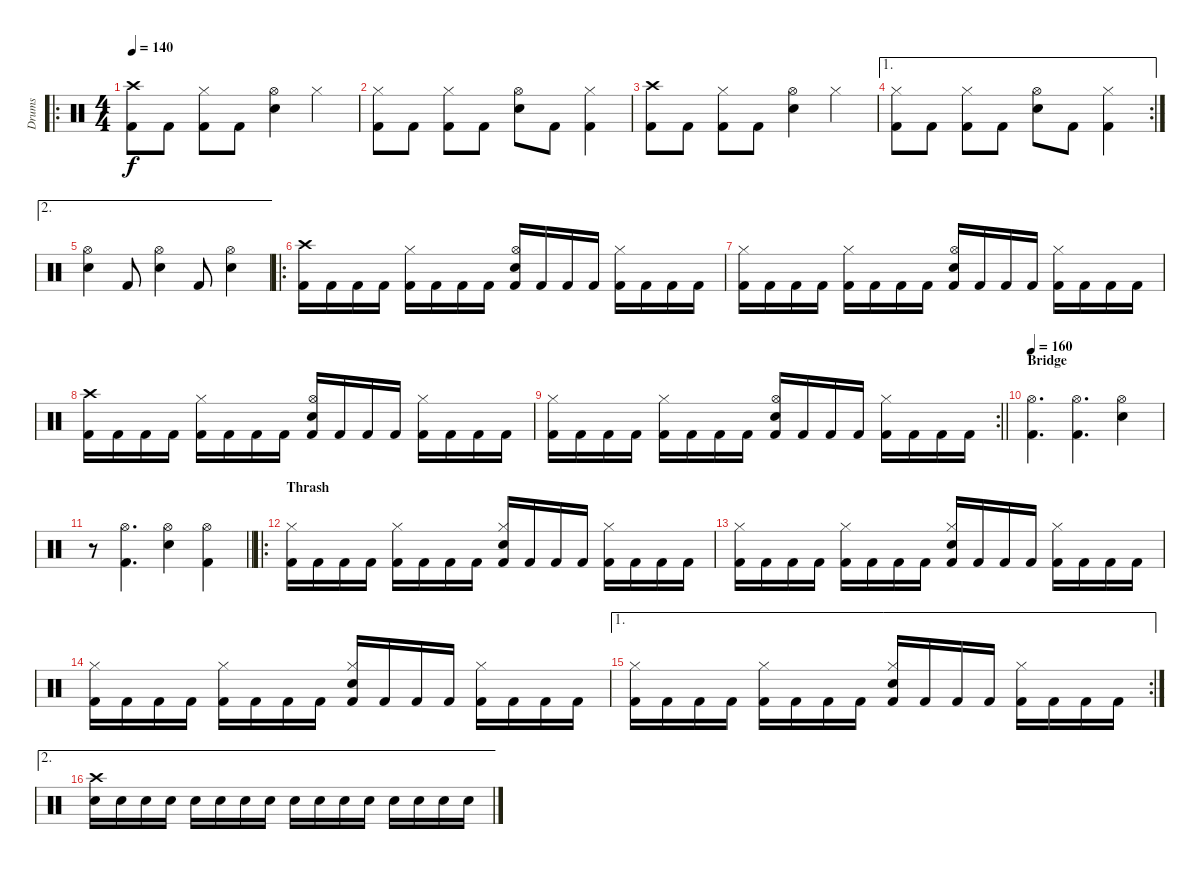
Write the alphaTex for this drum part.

\track ("Drums" "Drums") {instrument percussion}
\staff {score}
\articulation defaults
\ro
\ts (4 4)
\tempo 140
\clef neutral
\ks c
("Crash high (hit)" "Kick (hit) 2").8{dy f} "Kick (hit) 2".8 ("Hi-Hat (closed)" "Kick (hit) 2").8 "Kick (hit) 2".8 ("Hi-Hat (open)" "Snare (hit) 2").4 "Hi-Hat (closed)".4 |
("Hi-Hat (closed)" "Kick (hit) 2").8 "Kick (hit) 2".8 ("Hi-Hat (closed)" "Kick (hit) 2").8 "Kick (hit) 2".8 ("Hi-Hat (open)" "Snare (hit) 2").8 "Kick (hit) 2".8 ("Hi-Hat (closed)" "Kick (hit) 2").4 |
("Crash high (hit)" "Kick (hit) 2").8 "Kick (hit) 2".8 ("Hi-Hat (closed)" "Kick (hit) 2").8 "Kick (hit) 2".8 ("Hi-Hat (open)" "Snare (hit) 2").4 "Hi-Hat (closed)".4 |
\ae 1
\rc 2
("Hi-Hat (closed)" "Kick (hit) 2").8 "Kick (hit) 2".8 ("Hi-Hat (closed)" "Kick (hit) 2").8 "Kick (hit) 2".8 ("Hi-Hat (open)" "Snare (hit) 2").8 "Kick (hit) 2".8 ("Hi-Hat (closed)" "Kick (hit) 2").4 |
\ae 2
("Hi-Hat (open)" "Snare (hit) 2").4 "Kick (hit) 2".8 ("Hi-Hat (open)" "Snare (hit) 2").4 "Kick (hit) 2".8 ("Hi-Hat (open)" "Snare (hit) 2").4 |
\ro
("Crash high (hit)" "Kick (hit) 2").16 "Kick (hit) 2".16 "Kick (hit) 2".16 "Kick (hit) 2".16 ("Hi-Hat (closed)" "Kick (hit) 2").16 "Kick (hit) 2".16 "Kick (hit) 2".16 "Kick (hit) 2".16 ("Hi-Hat (open)" "Snare (hit) 2" "Kick (hit) 2").16 "Kick (hit) 2".16 "Kick (hit) 2".16 "Kick (hit) 2".16 ("Hi-Hat (closed)" "Kick (hit) 2").16 "Kick (hit) 2".16 "Kick (hit) 2".16 "Kick (hit) 2".16 |
("Hi-Hat (closed)" "Kick (hit) 2").16 "Kick (hit) 2".16 "Kick (hit) 2".16 "Kick (hit) 2".16 ("Hi-Hat (closed)" "Kick (hit) 2").16 "Kick (hit) 2".16 "Kick (hit) 2".16 "Kick (hit) 2".16 ("Hi-Hat (open)" "Snare (hit) 2" "Kick (hit) 2").16 "Kick (hit) 2".16 "Kick (hit) 2".16 "Kick (hit) 2".16 ("Hi-Hat (closed)" "Kick (hit) 2").16 "Kick (hit) 2".16 "Kick (hit) 2".16 "Kick (hit) 2".16 |
("Crash high (hit)" "Kick (hit) 2").16 "Kick (hit) 2".16 "Kick (hit) 2".16 "Kick (hit) 2".16 ("Hi-Hat (closed)" "Kick (hit) 2").16 "Kick (hit) 2".16 "Kick (hit) 2".16 "Kick (hit) 2".16 ("Hi-Hat (open)" "Snare (hit) 2" "Kick (hit) 2").16 "Kick (hit) 2".16 "Kick (hit) 2".16 "Kick (hit) 2".16 ("Hi-Hat (closed)" "Kick (hit) 2").16 "Kick (hit) 2".16 "Kick (hit) 2".16 "Kick (hit) 2".16 |
\rc 2
\barLineRight lightlight
("Hi-Hat (closed)" "Kick (hit) 2").16 "Kick (hit) 2".16 "Kick (hit) 2".16 "Kick (hit) 2".16 ("Hi-Hat (closed)" "Kick (hit) 2").16 "Kick (hit) 2".16 "Kick (hit) 2".16 "Kick (hit) 2".16 ("Hi-Hat (open)" "Snare (hit) 2" "Kick (hit) 2").16 "Kick (hit) 2".16 "Kick (hit) 2".16 "Kick (hit) 2".16 ("Hi-Hat (closed)" "Kick (hit) 2").16 "Kick (hit) 2".16 "Kick (hit) 2".16 "Kick (hit) 2".16 |
\section ("" "Bridge")
\tempo 160
("Hi-Hat (open)" "Kick (hit) 2").4{d} ("Hi-Hat (open)" "Kick (hit) 2").4{d} ("Hi-Hat (open)" "Snare (hit) 2").4 |
\barLineRight lightlight
r.8 ("Hi-Hat (open)" "Kick (hit) 2").4{d} ("Hi-Hat (open)" "Snare (hit) 2").4 ("Hi-Hat (open)" "Kick (hit) 2").4 |
\ro
\section ("" "Thrash")
("Hi-Hat (closed)" "Kick (hit) 2").16 "Kick (hit) 2".16 "Kick (hit) 2".16 "Kick (hit) 2".16 ("Hi-Hat (closed)" "Kick (hit) 2").16 "Kick (hit) 2".16 "Kick (hit) 2".16 "Kick (hit) 2".16 ("Hi-Hat (closed)" "Snare (hit) 2" "Kick (hit) 2").16 "Kick (hit) 2".16 "Kick (hit) 2".16 "Kick (hit) 2".16 ("Hi-Hat (closed)" "Kick (hit) 2").16 "Kick (hit) 2".16 "Kick (hit) 2".16 "Kick (hit) 2".16 |
("Hi-Hat (closed)" "Kick (hit) 2").16 "Kick (hit) 2".16 "Kick (hit) 2".16 "Kick (hit) 2".16 ("Hi-Hat (closed)" "Kick (hit) 2").16 "Kick (hit) 2".16 "Kick (hit) 2".16 "Kick (hit) 2".16 ("Hi-Hat (closed)" "Snare (hit) 2" "Kick (hit) 2").16 "Kick (hit) 2".16 "Kick (hit) 2".16 "Kick (hit) 2".16 ("Hi-Hat (closed)" "Kick (hit) 2").16 "Kick (hit) 2".16 "Kick (hit) 2".16 "Kick (hit) 2".16 |
("Hi-Hat (closed)" "Kick (hit) 2").16 "Kick (hit) 2".16 "Kick (hit) 2".16 "Kick (hit) 2".16 ("Hi-Hat (closed)" "Kick (hit) 2").16 "Kick (hit) 2".16 "Kick (hit) 2".16 "Kick (hit) 2".16 ("Hi-Hat (closed)" "Snare (hit) 2" "Kick (hit) 2").16 "Kick (hit) 2".16 "Kick (hit) 2".16 "Kick (hit) 2".16 ("Hi-Hat (closed)" "Kick (hit) 2").16 "Kick (hit) 2".16 "Kick (hit) 2".16 "Kick (hit) 2".16 |
\ae 1
\rc 2
("Hi-Hat (closed)" "Kick (hit) 2").16 "Kick (hit) 2".16 "Kick (hit) 2".16 "Kick (hit) 2".16 ("Hi-Hat (closed)" "Kick (hit) 2").16 "Kick (hit) 2".16 "Kick (hit) 2".16 "Kick (hit) 2".16 ("Hi-Hat (closed)" "Snare (hit) 2" "Kick (hit) 2").16 "Kick (hit) 2".16 "Kick (hit) 2".16 "Kick (hit) 2".16 ("Hi-Hat (closed)" "Kick (hit) 2").16 "Kick (hit) 2".16 "Kick (hit) 2".16 "Kick (hit) 2".16 |
\ae 2
("Crash high (hit)" "Snare (hit) 2").16 "Snare (hit) 2".16 "Snare (hit) 2".16 "Snare (hit) 2".16 "Snare (hit) 2".16 "Snare (hit) 2".16 "Snare (hit) 2".16 "Snare (hit) 2".16 "Snare (hit) 2".16 "Snare (hit) 2".16 "Snare (hit) 2".16 "Snare (hit) 2".16 "Snare (hit) 2".16 "Snare (hit) 2".16 "Snare (hit) 2".16 "Snare (hit) 2".16
